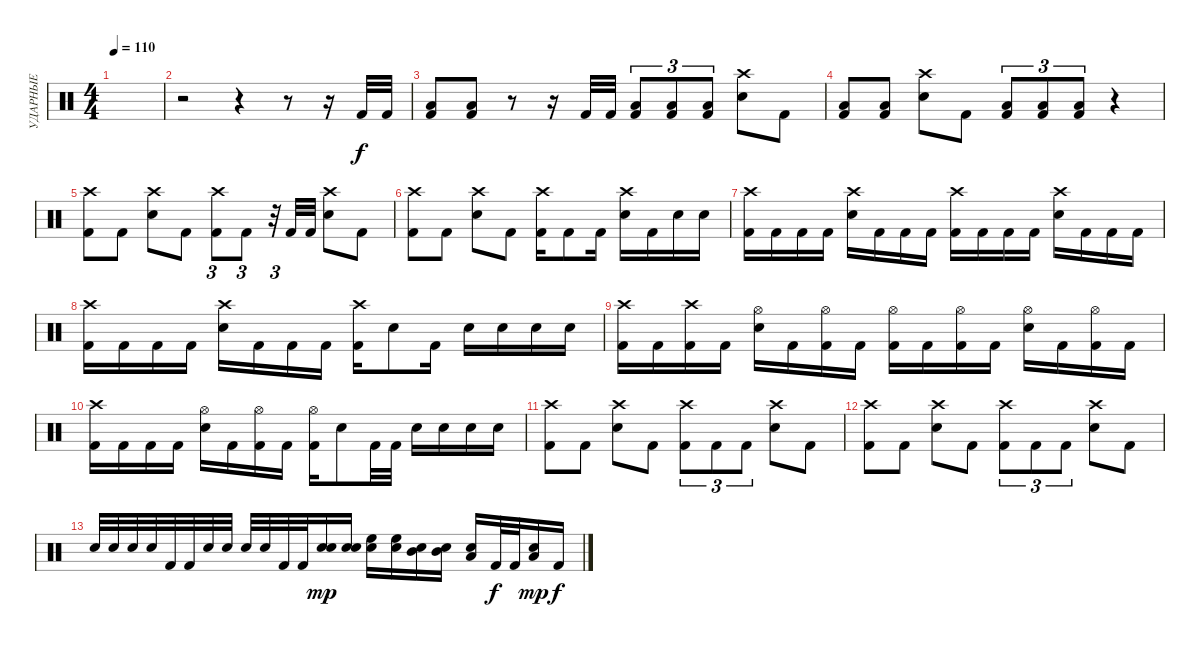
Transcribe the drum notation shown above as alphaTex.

\track ("УДАРНЫЕ" "УДАРНЫЕ") {instrument percussion}
\staff {score}
\articulation defaults
\ts (4 4)
\tempo 110
\clef neutral
\ks c
|
r.2 r.4 r.8 r.16 "Kick (hit) 2".32 "Kick (hit) 2".32 |
("Kick (hit) 2" "Low Floor Tom (hit)").8 ("Kick (hit) 2" "Low Floor Tom (hit)").8 r.8 r.16 "Kick (hit) 2".32 "Kick (hit) 2".32 ("Kick (hit) 2" "Low Floor Tom (hit)").8{tu (3 2)} ("Kick (hit) 2" "Low Floor Tom (hit)").8{tu (3 2)} ("Kick (hit) 2" "Low Floor Tom (hit)").8{tu (3 2)} ("Snare (hit) 2" "Crash high (hit)").8 "Kick (hit) 2".8 |
("Kick (hit) 2" "Low Floor Tom (hit)").8 ("Kick (hit) 2" "Low Floor Tom (hit)").8 ("Snare (hit) 2" "Crash high (hit)").8 "Kick (hit) 2".8 ("Kick (hit) 2" "Low Floor Tom (hit)").8{tu (3 2)} ("Kick (hit) 2" "Low Floor Tom (hit)").8{tu (3 2)} ("Kick (hit) 2" "Low Floor Tom (hit)").8{tu (3 2)} r.4 |
("Crash high (hit)" "Kick (hit) 2").8 "Kick (hit) 2".8 ("Crash high (hit)" "Snare (hit) 2").8 "Kick (hit) 2".8 ("Crash high (hit)" "Kick (hit) 2").8{tu (3 2)} "Kick (hit) 2".8{tu (3 2)} r.32{tu (3 2)} "Kick (hit) 2".32 "Kick (hit) 2".32 ("Crash high (hit)" "Snare (hit) 2").8 "Kick (hit) 2".8 |
("Crash high (hit)" "Kick (hit) 2").8 "Kick (hit) 2".8 ("Crash high (hit)" "Snare (hit) 2").8 "Kick (hit) 2".8 ("Crash high (hit)" "Kick (hit) 2").16 "Kick (hit) 2".8 "Kick (hit) 2".16 ("Crash high (hit)" "Snare (hit) 2").16 "Kick (hit) 2".16 "Snare (hit) 2".16 "Snare (hit) 2".16 |
("Kick (hit) 2" "Crash high (hit)").16 "Kick (hit) 2".16 "Kick (hit) 2".16 "Kick (hit) 2".16 ("Snare (hit) 2" "Crash high (hit)").16 "Kick (hit) 2".16 "Kick (hit) 2".16 "Kick (hit) 2".16 ("Kick (hit) 2" "Crash high (hit)").16 "Kick (hit) 2".16 "Kick (hit) 2".16 "Kick (hit) 2".16 ("Snare (hit) 2" "Crash high (hit)").16 "Kick (hit) 2".16 "Kick (hit) 2".16 "Kick (hit) 2".16 |
("Kick (hit) 2" "Crash high (hit)").16 "Kick (hit) 2".16 "Kick (hit) 2".16 "Kick (hit) 2".16 ("Snare (hit) 2" "Crash high (hit)").16 "Kick (hit) 2".16 "Kick (hit) 2".16 "Kick (hit) 2".16 ("Kick (hit) 2" "Crash high (hit)").16 "Snare (hit) 2".8 "Kick (hit) 2".16 "Snare (hit) 2".16 "Snare (hit) 2".16 "Snare (hit) 2".16 "Snare (hit) 2".16 |
("Kick (hit) 2" "Crash high (hit)").16 "Kick (hit) 2".16 ("Kick (hit) 2" "Crash high (hit)").16 "Kick (hit) 2".16 ("Snare (hit) 2" "Hi-Hat (open)").16 "Kick (hit) 2".16 ("Kick (hit) 2" "Hi-Hat (open)").16 "Kick (hit) 2".16 ("Kick (hit) 2" "Hi-Hat (open)").16 "Kick (hit) 2".16 ("Kick (hit) 2" "Hi-Hat (open)").16 "Kick (hit) 2".16 ("Snare (hit) 2" "Hi-Hat (open)").16 "Kick (hit) 2".16 ("Kick (hit) 2" "Hi-Hat (open)").16 "Kick (hit) 2".16 |
("Kick (hit) 2" "Crash high (hit)").16 "Kick (hit) 2".16 "Kick (hit) 2".16 "Kick (hit) 2".16 ("Snare (hit) 2" "Hi-Hat (open)").16 "Kick (hit) 2".16 ("Kick (hit) 2" "Hi-Hat (open)").16 "Kick (hit) 2".16 ("Kick (hit) 2" "Hi-Hat (open)").16 "Snare (hit) 2".8 "Kick (hit) 2".32 "Kick (hit) 2".32 "Snare (hit) 2".16 "Snare (hit) 2".16 "Snare (hit) 2".16 "Snare (hit) 2".16 |
("Kick (hit) 2" "Crash high (hit)").8 "Kick (hit) 2".8 ("Snare (hit) 2" "Crash high (hit)").8 "Kick (hit) 2".8 ("Kick (hit) 2" "Crash high (hit)").8{tu (3 2)} "Kick (hit) 2".8{tu (3 2)} "Kick (hit) 2".8{tu (3 2)} ("Snare (hit) 2" "Crash high (hit)").8 "Kick (hit) 2".8 |
("Kick (hit) 2" "Crash high (hit)").8 "Kick (hit) 2".8 ("Snare (hit) 2" "Crash high (hit)").8 "Kick (hit) 2".8 ("Kick (hit) 2" "Crash high (hit)").8{tu (3 2)} "Kick (hit) 2".8{tu (3 2)} "Kick (hit) 2".8{tu (3 2)} ("Snare (hit) 2" "Crash high (hit)").8 "Kick (hit) 2".8 |
"Snare (hit) 2".32 "Snare (hit) 2".32 "Snare (hit) 2".32 "Snare (hit) 2".32 "Kick (hit) 2".32 "Kick (hit) 2".32 "Snare (hit) 2".32 "Snare (hit) 2".32 "Snare (hit) 2".32 "Snare (hit) 2".32 "Kick (hit) 2".32 "Kick (hit) 2".32 ("Snare (hit) 2" "Snare (hit) 2").16{dy mp} ("Snare (hit) 2" "Snare (hit) 2").16 ("High Floor Tom (hit)" "Snare (hit) 2").16 ("High Floor Tom (hit)" "Snare (hit) 2").16 ("Mid Tom (hit)" "Snare (hit) 2").16 ("Mid Tom (hit)" "Snare (hit) 2").16 ("Low Tom (hit)" "Snare (hit) 2").16 "Kick (hit) 2".32{dy f} "Kick (hit) 2".32 ("Low Tom (hit)" "Snare (hit) 2").16{dy mp} "Kick (hit) 2".16{dy f}
